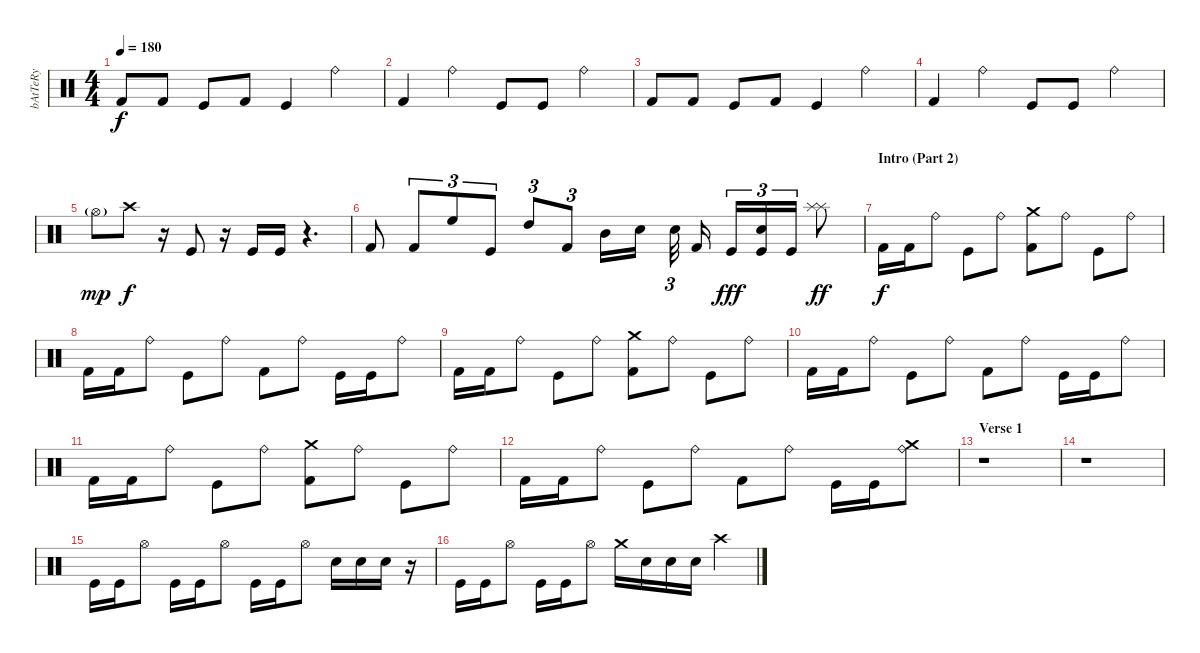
\track ("bAtTeRy" "bAtTeRy") {instrument percussion}
\staff {score}
\articulation defaults
\ts (4 4)
\tempo 180
\clef neutral
\ks c "Kick (hit) 2".8{dy f} "Kick (hit) 2".8 "Kick (hit)".8 "Kick (hit) 2".8 "Kick (hit)".4 "Ride (bell)".4
|
"Kick (hit) 2".4 "Ride (bell)".4 "Kick (hit)".8 "Kick (hit)".8 "Ride (bell)".4 |
"Kick (hit) 2".8 "Kick (hit) 2".8 "Kick (hit)".8 "Kick (hit) 2".8 "Kick (hit)".4 "Ride (bell)".4 |
"Kick (hit) 2".4 "Ride (bell)".4 "Kick (hit)".8 "Kick (hit)".8 "Ride (bell)".4 |
"Hi-Hat (open)"{g}.8{dy mp} "Crash high (hit)".8{dy f} r.16 "Kick (hit)".8 r.16 "Kick (hit)".16 "Kick (hit)".16 r.4{d} |
"Kick (hit) 2".8 "Kick (hit) 2".8{tu (3 2)} "High Floor Tom (hit)".8{tu (3 2)} "Kick (hit)".8{tu (3 2)} "High Tom (hit)".8{tu (3 2)} "Kick (hit) 2".8{tu (3 2)} "Mid Tom (hit)".16 "Electric Snare (hit)".16 "Electric Snare (hit)".32{tu (3 2)} "Kick (hit) 2".16 "Kick (hit)".16{tu (3 2) dy fff} ("Electric Snare (hit)" "Kick (hit)").16{tu (3 2)} "Kick (hit)".16{tu (3 2)} ("Splash (hit)" "Splash (hit)").8{dy ff} |
\section ("" "Intro (Part 2)")
"Kick (hit) 2".16{dy f} "Kick (hit) 2".16 "Ride (bell)".8 "Kick (hit)".8 "Ride (bell)".8 ("Crash medium (hit)" "Kick (hit) 2").8 "Ride (bell)".8 "Kick (hit)".8 "Ride (bell)".8 |
"Kick (hit) 2".16 "Kick (hit) 2".16 "Ride (bell)".8 "Kick (hit)".8 "Ride (bell)".8 "Kick (hit) 2".8 "Ride (bell)".8 "Kick (hit)".16 "Kick (hit)".16 "Ride (bell)".8 |
"Kick (hit) 2".16 "Kick (hit) 2".16 "Ride (bell)".8 "Kick (hit)".8 "Ride (bell)".8 ("Crash medium (hit)" "Kick (hit) 2").8 "Ride (bell)".8 "Kick (hit)".8 "Ride (bell)".8 |
"Kick (hit) 2".16 "Kick (hit) 2".16 "Ride (bell)".8 "Kick (hit)".8 "Ride (bell)".8 "Kick (hit) 2".8 "Ride (bell)".8 "Kick (hit)".16 "Kick (hit)".16 "Ride (bell)".8 |
"Kick (hit) 2".16 "Kick (hit) 2".16 "Ride (bell)".8 "Kick (hit)".8 "Ride (bell)".8 ("Crash medium (hit)" "Kick (hit) 2").8 "Ride (bell)".8 "Kick (hit)".8 "Ride (bell)".8 |
"Kick (hit) 2".16 "Kick (hit) 2".16 "Ride (bell)".8 "Kick (hit)".8 "Ride (bell)".8 "Kick (hit) 2".8 "Ride (bell)".8 "Kick (hit)".16 "Kick (hit)".16 ("Crash medium (hit)" "Ride (bell)").8 |
\section ("" "Verse 1")
r.1 |
r.1 |
"Kick (hit)".16 "Kick (hit)".16 "Hi-Hat (open)".8 "Kick (hit)".16 "Kick (hit)".16 "Hi-Hat (open)".8 "Kick (hit)".16 "Kick (hit)".16 "Hi-Hat (open)".8 "Electric Snare (hit)".16 "Electric Snare (hit)".16 "Electric Snare (hit)".16 r.16 |
"Kick (hit)".16 "Kick (hit)".16 "Hi-Hat (open)".8 "Kick (hit)".16 "Kick (hit)".16 "Hi-Hat (open)".8 "Crash medium (hit)".16 "Electric Snare (hit)".16 "Electric Snare (hit)".16 "Electric Snare (hit)".16 "Crash high (hit)".4
